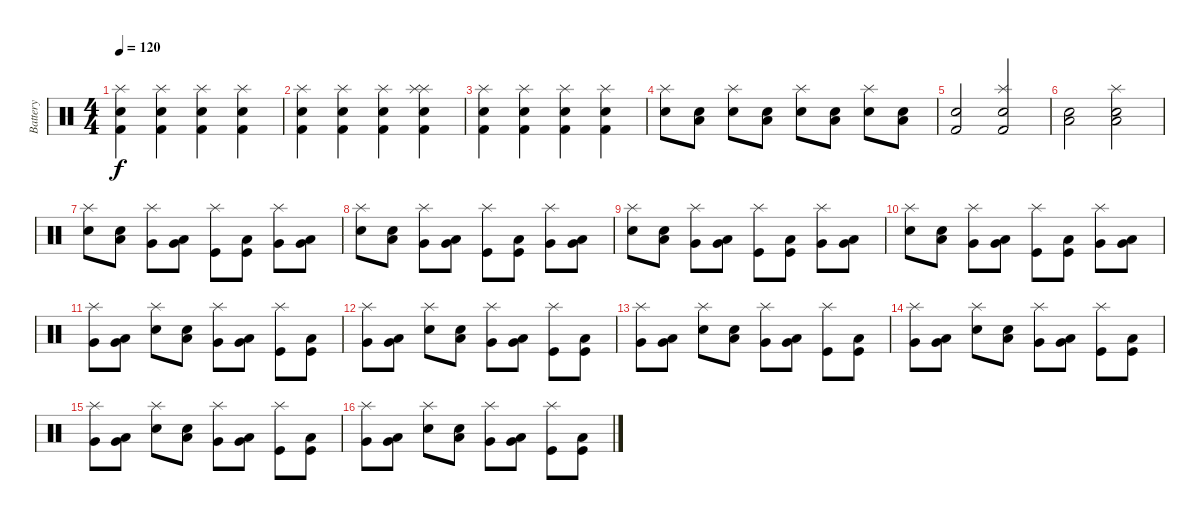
\track ("Battery" "Battery") {instrument percussion}
\staff {score}
\articulation defaults
\ts (4 4)
\tempo 120
\clef neutral
\ks c
("Snare (hit) 2" "Kick (hit) 2" "Splash (hit)").4{dy f} ("Snare (hit) 2" "Kick (hit) 2" "Splash (hit)").4 ("Snare (hit) 2" "Kick (hit) 2" "Splash (hit)").4 ("Snare (hit) 2" "Kick (hit) 2" "Splash (hit)").4 |
("Kick (hit) 2" "Snare (hit) 2" "Splash (hit)").4 ("Kick (hit) 2" "Snare (hit) 2" "Splash (hit)").4 ("Kick (hit) 2" "Snare (hit) 2" "Splash (hit)").4 ("Kick (hit) 2" "Snare (hit) 2" "Splash (hit)" "Splash (hit)").4 |
("Snare (hit) 2" "Kick (hit) 2" "Splash (hit)").4 ("Snare (hit) 2" "Kick (hit) 2" "Splash (hit)").4 ("Snare (hit) 2" "Kick (hit) 2" "Splash (hit)").4 ("Snare (hit) 2" "Kick (hit) 2" "Splash (hit)").4 |
("Snare (hit) 2" "Splash (hit)").8 ("Snare (hit) 2" "Low Floor Tom (hit)").8 ("Snare (hit) 2" "Splash (hit)").8 ("Snare (hit) 2" "Low Floor Tom (hit)").8 ("Snare (hit) 2" "Splash (hit)").8 ("Snare (hit) 2" "Low Floor Tom (hit)").8 ("Snare (hit) 2" "Splash (hit)").8 ("Snare (hit) 2" "Low Floor Tom (hit)").8 |
("Electric Snare (hit)" "Kick (hit) 2").2 ("Electric Snare (hit)" "Kick (hit) 2" "Splash (hit)").2 |
("Low Floor Tom (hit)" "Snare (hit) 2").2 ("Low Floor Tom (hit)" "Snare (hit) 2" "Splash (hit)").2 |
("Snare (hit) 2" "Splash (hit)").8 ("Snare (hit) 2" "Low Floor Tom (hit)").8 ("Very Low Tom (hit)" "Splash (hit)").8 ("Very Low Tom (hit)" "Low Floor Tom (hit)").8 ("Kick (hit)" "Splash (hit)").8 ("Kick (hit)" "Low Floor Tom (hit)").8 ("Very Low Tom (hit)" "Splash (hit)").8 ("Very Low Tom (hit)" "Low Floor Tom (hit)").8 |
("Snare (hit) 2" "Splash (hit)").8 ("Snare (hit) 2" "Low Floor Tom (hit)").8 ("Very Low Tom (hit)" "Splash (hit)").8 ("Very Low Tom (hit)" "Low Floor Tom (hit)").8 ("Kick (hit)" "Splash (hit)").8 ("Kick (hit)" "Low Floor Tom (hit)").8 ("Very Low Tom (hit)" "Splash (hit)").8 ("Very Low Tom (hit)" "Low Floor Tom (hit)").8 |
("Snare (hit) 2" "Splash (hit)").8 ("Snare (hit) 2" "Low Floor Tom (hit)").8 ("Very Low Tom (hit)" "Splash (hit)").8 ("Very Low Tom (hit)" "Low Floor Tom (hit)").8 ("Kick (hit)" "Splash (hit)").8 ("Kick (hit)" "Low Floor Tom (hit)").8 ("Very Low Tom (hit)" "Splash (hit)").8 ("Very Low Tom (hit)" "Low Floor Tom (hit)").8 |
("Snare (hit) 2" "Splash (hit)").8 ("Snare (hit) 2" "Low Floor Tom (hit)").8 ("Very Low Tom (hit)" "Splash (hit)").8 ("Very Low Tom (hit)" "Low Floor Tom (hit)").8 ("Kick (hit)" "Splash (hit)").8 ("Kick (hit)" "Low Floor Tom (hit)").8 ("Very Low Tom (hit)" "Splash (hit)").8 ("Very Low Tom (hit)" "Low Floor Tom (hit)").8 |
("Very Low Tom (hit)" "Splash (hit)").8 ("Very Low Tom (hit)" "Low Floor Tom (hit)").8 ("Snare (hit) 2" "Splash (hit)").8 ("Snare (hit) 2" "Low Floor Tom (hit)").8 ("Very Low Tom (hit)" "Splash (hit)").8 ("Very Low Tom (hit)" "Low Floor Tom (hit)").8 ("Kick (hit)" "Splash (hit)").8 ("Kick (hit)" "Low Floor Tom (hit)").8 |
("Very Low Tom (hit)" "Splash (hit)").8 ("Very Low Tom (hit)" "Low Floor Tom (hit)").8 ("Snare (hit) 2" "Splash (hit)").8 ("Snare (hit) 2" "Low Floor Tom (hit)").8 ("Very Low Tom (hit)" "Splash (hit)").8 ("Very Low Tom (hit)" "Low Floor Tom (hit)").8 ("Kick (hit)" "Splash (hit)").8 ("Kick (hit)" "Low Floor Tom (hit)").8 |
("Very Low Tom (hit)" "Splash (hit)").8 ("Very Low Tom (hit)" "Low Floor Tom (hit)").8 ("Snare (hit) 2" "Splash (hit)").8 ("Snare (hit) 2" "Low Floor Tom (hit)").8 ("Very Low Tom (hit)" "Splash (hit)").8 ("Very Low Tom (hit)" "Low Floor Tom (hit)").8 ("Kick (hit)" "Splash (hit)").8 ("Kick (hit)" "Low Floor Tom (hit)").8 |
("Very Low Tom (hit)" "Splash (hit)").8 ("Very Low Tom (hit)" "Low Floor Tom (hit)").8 ("Snare (hit) 2" "Splash (hit)").8 ("Snare (hit) 2" "Low Floor Tom (hit)").8 ("Very Low Tom (hit)" "Splash (hit)").8 ("Very Low Tom (hit)" "Low Floor Tom (hit)").8 ("Kick (hit)" "Splash (hit)").8 ("Kick (hit)" "Low Floor Tom (hit)").8 |
("Very Low Tom (hit)" "Splash (hit)").8 ("Very Low Tom (hit)" "Low Floor Tom (hit)").8 ("Snare (hit) 2" "Splash (hit)").8 ("Snare (hit) 2" "Low Floor Tom (hit)").8 ("Very Low Tom (hit)" "Splash (hit)").8 ("Very Low Tom (hit)" "Low Floor Tom (hit)").8 ("Kick (hit)" "Splash (hit)").8 ("Kick (hit)" "Low Floor Tom (hit)").8 |
("Very Low Tom (hit)" "Splash (hit)").8 ("Very Low Tom (hit)" "Low Floor Tom (hit)").8 ("Snare (hit) 2" "Splash (hit)").8 ("Snare (hit) 2" "Low Floor Tom (hit)").8 ("Very Low Tom (hit)" "Splash (hit)").8 ("Very Low Tom (hit)" "Low Floor Tom (hit)").8 ("Kick (hit)" "Splash (hit)").8 ("Kick (hit)" "Low Floor Tom (hit)").8
